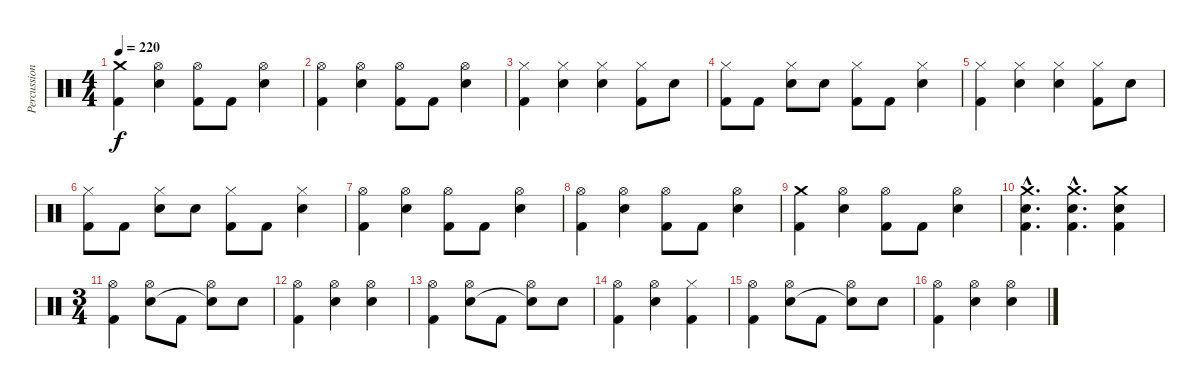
\track ("Percussion" "Percussion") {instrument percussion}
\staff {score}
\articulation defaults
\ts (4 4)
\tempo 220
\clef neutral
\ks c
("Crash medium (hit)" "Kick (hit) 2").4{dy f} ("Hi-Hat (open)" "Snare (hit) 2").4 ("Hi-Hat (open)" "Kick (hit) 2").8 "Kick (hit) 2".8 ("Hi-Hat (open)" "Snare (hit) 2").4 |
("Hi-Hat (open)" "Kick (hit) 2").4 ("Hi-Hat (open)" "Snare (hit) 2").4 ("Hi-Hat (open)" "Kick (hit) 2").8 "Kick (hit) 2".8 ("Hi-Hat (open)" "Snare (hit) 2").4 |
("Hi-Hat (closed)" "Kick (hit) 2").4 ("Hi-Hat (closed)" "Snare (hit) 2").4 ("Hi-Hat (closed)" "Snare (hit) 2").4 ("Hi-Hat (closed)" "Kick (hit) 2").8 "Snare (hit) 2".8 |
("Hi-Hat (closed)" "Kick (hit) 2").8 "Kick (hit) 2".8 ("Hi-Hat (closed)" "Snare (hit) 2").8 "Snare (hit) 2".8 ("Hi-Hat (closed)" "Kick (hit) 2").8 "Kick (hit) 2".8 ("Hi-Hat (closed)" "Snare (hit) 2").4 |
("Hi-Hat (closed)" "Kick (hit) 2").4 ("Hi-Hat (closed)" "Snare (hit) 2").4 ("Hi-Hat (closed)" "Snare (hit) 2").4 ("Hi-Hat (closed)" "Kick (hit) 2").8 "Snare (hit) 2".8 |
("Hi-Hat (closed)" "Kick (hit) 2").8 "Kick (hit) 2".8 ("Hi-Hat (closed)" "Snare (hit) 2").8 "Snare (hit) 2".8 ("Hi-Hat (closed)" "Kick (hit) 2").8 "Kick (hit) 2".8 ("Hi-Hat (closed)" "Snare (hit) 2").4 |
("Hi-Hat (open)" "Kick (hit) 2").4 ("Hi-Hat (open)" "Snare (hit) 2").4 ("Hi-Hat (open)" "Kick (hit) 2").8 "Kick (hit) 2".8 ("Hi-Hat (open)" "Snare (hit) 2").4 |
("Hi-Hat (open)" "Kick (hit) 2").4 ("Hi-Hat (open)" "Snare (hit) 2").4 ("Hi-Hat (open)" "Kick (hit) 2").8 "Kick (hit) 2".8 ("Hi-Hat (open)" "Snare (hit) 2").4 |
("Crash medium (hit)" "Kick (hit) 2").4 ("Hi-Hat (open)" "Snare (hit) 2").4 ("Hi-Hat (open)" "Kick (hit) 2").8 "Kick (hit) 2".8 ("Hi-Hat (open)" "Snare (hit) 2").4 |
("Crash medium (hit)"{hac} "Snare (hit) 2"{hac} "Kick (hit) 2"{hac}).4{d} ("Crash medium (hit)"{hac} "Snare (hit) 2"{hac} "Kick (hit) 2"{hac}).4{d} ("Crash medium (hit)" "Snare (hit) 2" "Kick (hit) 2").4 |
\ts (3 4)
("Hi-Hat (open)" "Kick (hit) 2").4 ("Hi-Hat (open)" "Snare (hit) 2").8 "Kick (hit) 2".8 ("Hi-Hat (open)" "Snare (hit) 2"{t}).8 "Snare (hit) 2".8 |
("Hi-Hat (open)" "Kick (hit) 2").4 ("Hi-Hat (open)" "Snare (hit) 2").4 ("Hi-Hat (open)" "Snare (hit) 2").4 |
("Hi-Hat (open)" "Kick (hit) 2").4 ("Hi-Hat (open)" "Snare (hit) 2").8 "Kick (hit) 2".8 ("Hi-Hat (open)" "Snare (hit) 2"{t}).8 "Snare (hit) 2".8 |
("Hi-Hat (open)" "Kick (hit) 2").4 ("Hi-Hat (open)" "Snare (hit) 2").4 ("Hi-Hat (closed)" "Kick (hit) 2").4 |
("Hi-Hat (open)" "Kick (hit) 2").4 ("Hi-Hat (open)" "Snare (hit) 2").8 "Kick (hit) 2".8 ("Hi-Hat (open)" "Snare (hit) 2"{t}).8 "Snare (hit) 2".8 |
("Hi-Hat (open)" "Kick (hit) 2").4 ("Hi-Hat (open)" "Snare (hit) 2").4 ("Hi-Hat (open)" "Snare (hit) 2").4
